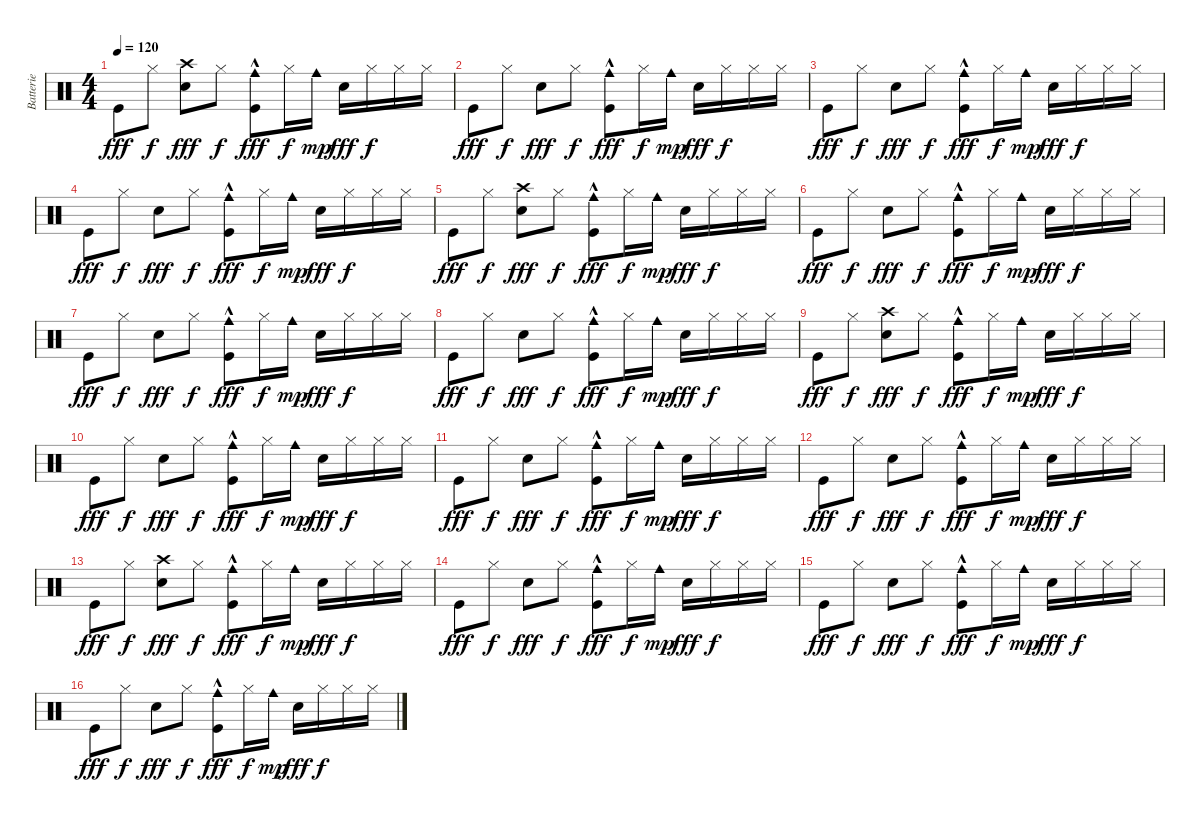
\track ("Batterie" "Batterie") {instrument percussion}
\staff {score}
\articulation defaults
\ts (4 4)
\tempo 120
\clef neutral
\ks c "Kick (hit)".8{dy fff} "Hi-Hat (closed)".8{dy f}
("Crash high (hit)" "Snare (hit) 2").8{dy fff} "Hi-Hat (closed)".8{dy f} ("Cowbell medium (hit)"{hac} "Kick (hit)").8{dy fff} "Hi-Hat (closed)".16{dy f} "Cowbell medium (hit)".16{dy mp} "Snare (hit) 2".16{dy fff} "Hi-Hat (closed)".16{dy f} "Hi-Hat (closed)".16 "Hi-Hat (closed)".16 |
"Kick (hit)".8{dy fff} "Hi-Hat (closed)".8{dy f} "Snare (hit) 2".8{dy fff} "Hi-Hat (closed)".8{dy f} ("Cowbell medium (hit)"{hac} "Kick (hit)").8{dy fff} "Hi-Hat (closed)".16{dy f} "Cowbell medium (hit)".16{dy mp} "Snare (hit) 2".16{dy fff} "Hi-Hat (closed)".16{dy f} "Hi-Hat (closed)".16 "Hi-Hat (closed)".16 |
"Kick (hit)".8{dy fff} "Hi-Hat (closed)".8{dy f} "Snare (hit) 2".8{dy fff} "Hi-Hat (closed)".8{dy f} ("Cowbell medium (hit)"{hac} "Kick (hit)").8{dy fff} "Hi-Hat (closed)".16{dy f} "Cowbell medium (hit)".16{dy mp} "Snare (hit) 2".16{dy fff} "Hi-Hat (closed)".16{dy f} "Hi-Hat (closed)".16 "Hi-Hat (closed)".16 |
"Kick (hit)".8{dy fff} "Hi-Hat (closed)".8{dy f} "Snare (hit) 2".8{dy fff} "Hi-Hat (closed)".8{dy f} ("Cowbell medium (hit)"{hac} "Kick (hit)").8{dy fff} "Hi-Hat (closed)".16{dy f} "Cowbell medium (hit)".16{dy mp} "Snare (hit) 2".16{dy fff} "Hi-Hat (closed)".16{dy f} "Hi-Hat (closed)".16 "Hi-Hat (closed)".16 |
"Kick (hit)".8{dy fff} "Hi-Hat (closed)".8{dy f} ("Crash high (hit)" "Snare (hit) 2").8{dy fff} "Hi-Hat (closed)".8{dy f} ("Cowbell medium (hit)"{hac} "Kick (hit)").8{dy fff} "Hi-Hat (closed)".16{dy f} "Cowbell medium (hit)".16{dy mp} "Snare (hit) 2".16{dy fff} "Hi-Hat (closed)".16{dy f} "Hi-Hat (closed)".16 "Hi-Hat (closed)".16 |
"Kick (hit)".8{dy fff} "Hi-Hat (closed)".8{dy f} "Snare (hit) 2".8{dy fff} "Hi-Hat (closed)".8{dy f} ("Cowbell medium (hit)"{hac} "Kick (hit)").8{dy fff} "Hi-Hat (closed)".16{dy f} "Cowbell medium (hit)".16{dy mp} "Snare (hit) 2".16{dy fff} "Hi-Hat (closed)".16{dy f} "Hi-Hat (closed)".16 "Hi-Hat (closed)".16 |
"Kick (hit)".8{dy fff} "Hi-Hat (closed)".8{dy f} "Snare (hit) 2".8{dy fff} "Hi-Hat (closed)".8{dy f} ("Cowbell medium (hit)"{hac} "Kick (hit)").8{dy fff} "Hi-Hat (closed)".16{dy f} "Cowbell medium (hit)".16{dy mp} "Snare (hit) 2".16{dy fff} "Hi-Hat (closed)".16{dy f} "Hi-Hat (closed)".16 "Hi-Hat (closed)".16 |
"Kick (hit)".8{dy fff} "Hi-Hat (closed)".8{dy f} "Snare (hit) 2".8{dy fff} "Hi-Hat (closed)".8{dy f} ("Cowbell medium (hit)"{hac} "Kick (hit)").8{dy fff} "Hi-Hat (closed)".16{dy f} "Cowbell medium (hit)".16{dy mp} "Snare (hit) 2".16{dy fff} "Hi-Hat (closed)".16{dy f} "Hi-Hat (closed)".16 "Hi-Hat (closed)".16 |
"Kick (hit)".8{dy fff} "Hi-Hat (closed)".8{dy f} ("Crash high (hit)" "Snare (hit) 2").8{dy fff} "Hi-Hat (closed)".8{dy f} ("Cowbell medium (hit)"{hac} "Kick (hit)").8{dy fff} "Hi-Hat (closed)".16{dy f} "Cowbell medium (hit)".16{dy mp} "Snare (hit) 2".16{dy fff} "Hi-Hat (closed)".16{dy f} "Hi-Hat (closed)".16 "Hi-Hat (closed)".16 |
"Kick (hit)".8{dy fff} "Hi-Hat (closed)".8{dy f} "Snare (hit) 2".8{dy fff} "Hi-Hat (closed)".8{dy f} ("Cowbell medium (hit)"{hac} "Kick (hit)").8{dy fff} "Hi-Hat (closed)".16{dy f} "Cowbell medium (hit)".16{dy mp} "Snare (hit) 2".16{dy fff} "Hi-Hat (closed)".16{dy f} "Hi-Hat (closed)".16 "Hi-Hat (closed)".16 |
"Kick (hit)".8{dy fff} "Hi-Hat (closed)".8{dy f} "Snare (hit) 2".8{dy fff} "Hi-Hat (closed)".8{dy f} ("Cowbell medium (hit)"{hac} "Kick (hit)").8{dy fff} "Hi-Hat (closed)".16{dy f} "Cowbell medium (hit)".16{dy mp} "Snare (hit) 2".16{dy fff} "Hi-Hat (closed)".16{dy f} "Hi-Hat (closed)".16 "Hi-Hat (closed)".16 |
"Kick (hit)".8{dy fff} "Hi-Hat (closed)".8{dy f} "Snare (hit) 2".8{dy fff} "Hi-Hat (closed)".8{dy f} ("Cowbell medium (hit)"{hac} "Kick (hit)").8{dy fff} "Hi-Hat (closed)".16{dy f} "Cowbell medium (hit)".16{dy mp} "Snare (hit) 2".16{dy fff} "Hi-Hat (closed)".16{dy f} "Hi-Hat (closed)".16 "Hi-Hat (closed)".16 |
"Kick (hit)".8{dy fff} "Hi-Hat (closed)".8{dy f} ("Crash high (hit)" "Snare (hit) 2").8{dy fff} "Hi-Hat (closed)".8{dy f} ("Cowbell medium (hit)"{hac} "Kick (hit)").8{dy fff} "Hi-Hat (closed)".16{dy f} "Cowbell medium (hit)".16{dy mp} "Snare (hit) 2".16{dy fff} "Hi-Hat (closed)".16{dy f} "Hi-Hat (closed)".16 "Hi-Hat (closed)".16 |
"Kick (hit)".8{dy fff} "Hi-Hat (closed)".8{dy f} "Snare (hit) 2".8{dy fff} "Hi-Hat (closed)".8{dy f} ("Cowbell medium (hit)"{hac} "Kick (hit)").8{dy fff} "Hi-Hat (closed)".16{dy f} "Cowbell medium (hit)".16{dy mp} "Snare (hit) 2".16{dy fff} "Hi-Hat (closed)".16{dy f} "Hi-Hat (closed)".16 "Hi-Hat (closed)".16 |
"Kick (hit)".8{dy fff} "Hi-Hat (closed)".8{dy f} "Snare (hit) 2".8{dy fff} "Hi-Hat (closed)".8{dy f} ("Cowbell medium (hit)"{hac} "Kick (hit)").8{dy fff} "Hi-Hat (closed)".16{dy f} "Cowbell medium (hit)".16{dy mp} "Snare (hit) 2".16{dy fff} "Hi-Hat (closed)".16{dy f} "Hi-Hat (closed)".16 "Hi-Hat (closed)".16 |
"Kick (hit)".8{dy fff} "Hi-Hat (closed)".8{dy f} "Snare (hit) 2".8{dy fff} "Hi-Hat (closed)".8{dy f} ("Cowbell medium (hit)"{hac} "Kick (hit)").8{dy fff} "Hi-Hat (closed)".16{dy f} "Cowbell medium (hit)".16{dy mp} "Snare (hit) 2".16{dy fff} "Hi-Hat (closed)".16{dy f} "Hi-Hat (closed)".16 "Hi-Hat (closed)".16
